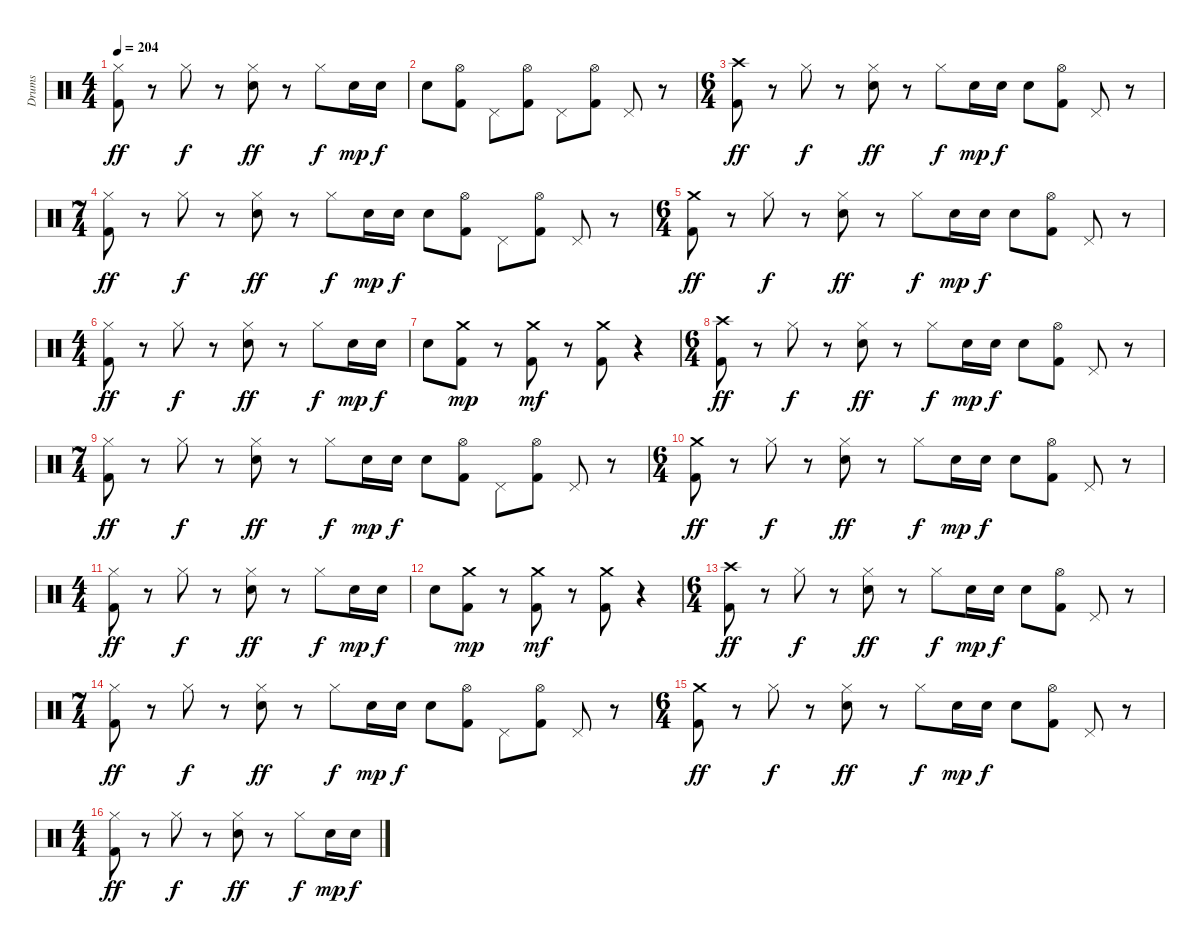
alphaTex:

\track ("Drums" "Drums") {instrument percussion}
\staff {score}
\articulation defaults
\ts (4 4)
\tempo 204
\clef neutral
\ks c
("Kick (hit) 2" "Hi-Hat (closed)").8{dy ff} r.8 "Hi-Hat (closed)".8{dy f} r.8 ("Electric Snare (hit)" "Hi-Hat (closed)").8{dy ff} r.8 "Hi-Hat (closed)".8{dy f} "Electric Snare (hit)".16{dy mp} "Electric Snare (hit)".16{dy f} |
"Electric Snare (hit)".8 ("Kick (hit) 2" "Hi-Hat (open)").8 "Pedal Hi-Hat (hit)".8 ("Kick (hit) 2" "Hi-Hat (open)").8 "Pedal Hi-Hat (hit)".8 ("Kick (hit) 2" "Hi-Hat (open)").8 "Pedal Hi-Hat (hit)".8 r.8 |
\ts (6 4)
("Kick (hit) 2" "Crash high (hit)").8{dy ff} r.8 "Hi-Hat (closed)".8{dy f} r.8 ("Electric Snare (hit)" "Hi-Hat (closed)").8{dy ff} r.8 "Hi-Hat (closed)".8{dy f} "Electric Snare (hit)".16{dy mp} "Electric Snare (hit)".16{dy f} "Electric Snare (hit)".8 ("Kick (hit) 2" "Hi-Hat (open)").8 "Pedal Hi-Hat (hit)".8 r.8 |
\ts (7 4)
("Kick (hit) 2" "Hi-Hat (closed)").8{dy ff} r.8 "Hi-Hat (closed)".8{dy f} r.8 ("Electric Snare (hit)" "Hi-Hat (closed)").8{dy ff} r.8 "Hi-Hat (closed)".8{dy f} "Electric Snare (hit)".16{dy mp} "Electric Snare (hit)".16{dy f} "Electric Snare (hit)".8 ("Kick (hit) 2" "Hi-Hat (open)").8 "Pedal Hi-Hat (hit)".8 ("Kick (hit) 2" "Hi-Hat (open)").8 "Pedal Hi-Hat (hit)".8 r.8 |
\ts (6 4)
("Kick (hit) 2" "Crash medium (hit)").8{dy ff} r.8 "Hi-Hat (closed)".8{dy f} r.8 ("Electric Snare (hit)" "Hi-Hat (closed)").8{dy ff} r.8 "Hi-Hat (closed)".8{dy f} "Electric Snare (hit)".16{dy mp} "Electric Snare (hit)".16{dy f} "Electric Snare (hit)".8 ("Kick (hit) 2" "Hi-Hat (open)").8 "Pedal Hi-Hat (hit)".8 r.8 |
\ts (4 4)
("Kick (hit) 2" "Hi-Hat (closed)").8{dy ff} r.8 "Hi-Hat (closed)".8{dy f} r.8 ("Electric Snare (hit)" "Hi-Hat (closed)").8{dy ff} r.8 "Hi-Hat (closed)".8{dy f} "Electric Snare (hit)".16{dy mp} "Electric Snare (hit)".16{dy f} |
"Electric Snare (hit)".8 ("Kick (hit) 2" "Crash medium (hit)").8{dy mp} r.8 ("Kick (hit) 2" "Crash medium (hit)").8{dy mf} r.8 ("Kick (hit) 2" "Crash medium (hit)").8 r.4 |
\ts (6 4)
("Kick (hit) 2" "Crash high (hit)").8{dy ff} r.8 "Hi-Hat (closed)".8{dy f} r.8 ("Electric Snare (hit)" "Hi-Hat (closed)").8{dy ff} r.8 "Hi-Hat (closed)".8{dy f} "Electric Snare (hit)".16{dy mp} "Electric Snare (hit)".16{dy f} "Electric Snare (hit)".8 ("Kick (hit) 2" "Hi-Hat (open)").8 "Pedal Hi-Hat (hit)".8 r.8 |
\ts (7 4)
("Kick (hit) 2" "Hi-Hat (closed)").8{dy ff} r.8 "Hi-Hat (closed)".8{dy f} r.8 ("Electric Snare (hit)" "Hi-Hat (closed)").8{dy ff} r.8 "Hi-Hat (closed)".8{dy f} "Electric Snare (hit)".16{dy mp} "Electric Snare (hit)".16{dy f} "Electric Snare (hit)".8 ("Kick (hit) 2" "Hi-Hat (open)").8 "Pedal Hi-Hat (hit)".8 ("Kick (hit) 2" "Hi-Hat (open)").8 "Pedal Hi-Hat (hit)".8 r.8 |
\ts (6 4)
("Kick (hit) 2" "Crash medium (hit)").8{dy ff} r.8 "Hi-Hat (closed)".8{dy f} r.8 ("Electric Snare (hit)" "Hi-Hat (closed)").8{dy ff} r.8 "Hi-Hat (closed)".8{dy f} "Electric Snare (hit)".16{dy mp} "Electric Snare (hit)".16{dy f} "Electric Snare (hit)".8 ("Kick (hit) 2" "Hi-Hat (open)").8 "Pedal Hi-Hat (hit)".8 r.8 |
\ts (4 4)
("Kick (hit) 2" "Hi-Hat (closed)").8{dy ff} r.8 "Hi-Hat (closed)".8{dy f} r.8 ("Electric Snare (hit)" "Hi-Hat (closed)").8{dy ff} r.8 "Hi-Hat (closed)".8{dy f} "Electric Snare (hit)".16{dy mp} "Electric Snare (hit)".16{dy f} |
"Electric Snare (hit)".8 ("Kick (hit) 2" "Crash medium (hit)").8{dy mp} r.8 ("Kick (hit) 2" "Crash medium (hit)").8{dy mf} r.8 ("Kick (hit) 2" "Crash medium (hit)").8 r.4 |
\ts (6 4)
("Kick (hit) 2" "Crash high (hit)").8{dy ff} r.8 "Hi-Hat (closed)".8{dy f} r.8 ("Electric Snare (hit)" "Hi-Hat (closed)").8{dy ff} r.8 "Hi-Hat (closed)".8{dy f} "Electric Snare (hit)".16{dy mp} "Electric Snare (hit)".16{dy f} "Electric Snare (hit)".8 ("Kick (hit) 2" "Hi-Hat (open)").8 "Pedal Hi-Hat (hit)".8 r.8 |
\ts (7 4)
("Kick (hit) 2" "Hi-Hat (closed)").8{dy ff} r.8 "Hi-Hat (closed)".8{dy f} r.8 ("Electric Snare (hit)" "Hi-Hat (closed)").8{dy ff} r.8 "Hi-Hat (closed)".8{dy f} "Electric Snare (hit)".16{dy mp} "Electric Snare (hit)".16{dy f} "Electric Snare (hit)".8 ("Kick (hit) 2" "Hi-Hat (open)").8 "Pedal Hi-Hat (hit)".8 ("Kick (hit) 2" "Hi-Hat (open)").8 "Pedal Hi-Hat (hit)".8 r.8 |
\ts (6 4)
("Kick (hit) 2" "Crash medium (hit)").8{dy ff} r.8 "Hi-Hat (closed)".8{dy f} r.8 ("Electric Snare (hit)" "Hi-Hat (closed)").8{dy ff} r.8 "Hi-Hat (closed)".8{dy f} "Electric Snare (hit)".16{dy mp} "Electric Snare (hit)".16{dy f} "Electric Snare (hit)".8 ("Kick (hit) 2" "Hi-Hat (open)").8 "Pedal Hi-Hat (hit)".8 r.8 |
\ts (4 4)
("Kick (hit) 2" "Hi-Hat (closed)").8{dy ff} r.8 "Hi-Hat (closed)".8{dy f} r.8 ("Electric Snare (hit)" "Hi-Hat (closed)").8{dy ff} r.8 "Hi-Hat (closed)".8{dy f} "Electric Snare (hit)".16{dy mp} "Electric Snare (hit)".16{dy f}
